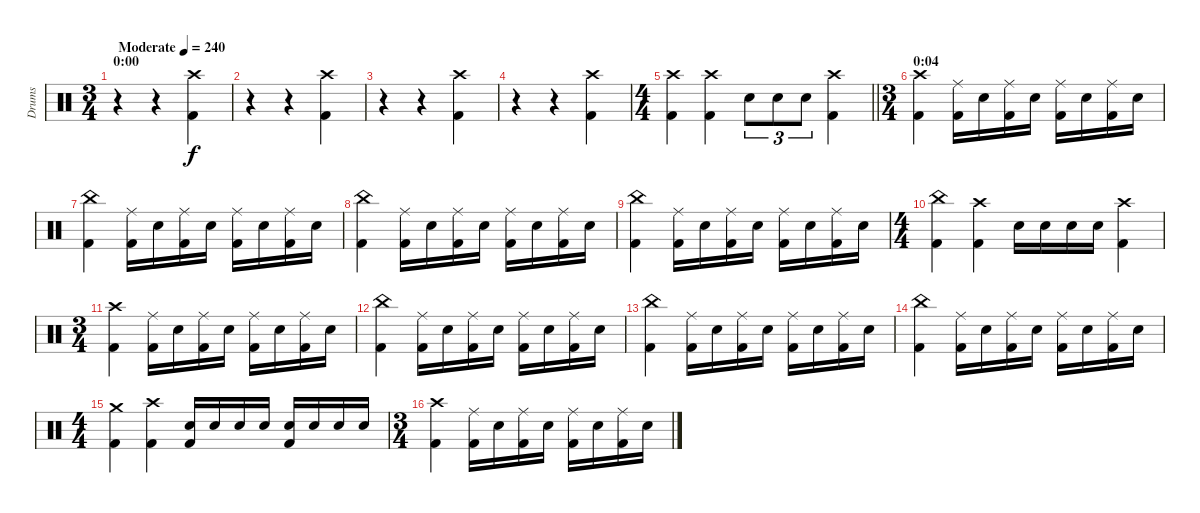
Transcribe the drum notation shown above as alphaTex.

\track ("Drums" "Drums") {instrument percussion}
\staff {score}
\articulation defaults
\ts (3 4)
\section ("" "0:00")
\tempo (240 "Moderate")
\clef neutral
\ks c
r.4{dy f} r.4 ("Crash high (hit)" "Kick (hit) 2").4 |
r.4{volume 0} r.4 ("Crash high (hit)" "Kick (hit) 2").4{volume 13} |
r.4{volume 0} r.4 ("Crash high (hit)" "Kick (hit) 2").4{volume 13} |
r.4{volume 0} r.4 ("Crash high (hit)" "Kick (hit) 2").4{volume 13} |
\ts (4 4)
\barLineRight lightlight
("Crash high (hit)" "Kick (hit) 2").4 ("Crash high (hit)" "Kick (hit) 2").4 "Electric Snare (hit)".8{tu (3 2)} "Electric Snare (hit)".8{tu (3 2)} "Electric Snare (hit)".8{tu (3 2)} ("Crash high (hit)" "Kick (hit) 2").4 |
\ts (3 4)
\section ("" "0:04")
("Crash high (hit)" "Kick (hit) 2").4 ("Ride (middle)" "Kick (hit) 2").16 "Electric Snare (hit)".16 ("Ride (middle)" "Kick (hit) 2").16 "Electric Snare (hit)".16 ("Ride (middle)" "Kick (hit) 2").16 "Electric Snare (hit)".16 ("Ride (middle)" "Kick (hit) 2").16 "Electric Snare (hit)".16 |
("China (hit)" "Kick (hit) 2").4 ("Ride (middle)" "Kick (hit) 2").16 "Electric Snare (hit)".16 ("Ride (middle)" "Kick (hit) 2").16 "Electric Snare (hit)".16 ("Ride (middle)" "Kick (hit) 2").16 "Electric Snare (hit)".16 ("Ride (middle)" "Kick (hit) 2").16 "Electric Snare (hit)".16 |
("China (hit)" "Kick (hit) 2").4 ("Ride (middle)" "Kick (hit) 2").16 "Electric Snare (hit)".16 ("Ride (middle)" "Kick (hit) 2").16 "Electric Snare (hit)".16 ("Ride (middle)" "Kick (hit) 2").16 "Electric Snare (hit)".16 ("Ride (middle)" "Kick (hit) 2").16 "Electric Snare (hit)".16 |
("China (hit)" "Kick (hit) 2").4 ("Ride (middle)" "Kick (hit) 2").16 "Electric Snare (hit)".16 ("Ride (middle)" "Kick (hit) 2").16 "Electric Snare (hit)".16 ("Ride (middle)" "Kick (hit) 2").16 "Electric Snare (hit)".16 ("Ride (middle)" "Kick (hit) 2").16 "Electric Snare (hit)".16 |
\ts (4 4)
("China (hit)" "Kick (hit) 2").4 ("Crash high (hit)" "Kick (hit) 2").4 "Electric Snare (hit)".16 "Electric Snare (hit)".16 "Electric Snare (hit)".16 "Electric Snare (hit)".16 ("Crash high (hit)" "Kick (hit) 2").4 |
\ts (3 4)
("Crash high (hit)" "Kick (hit) 2").4 ("Ride (middle)" "Kick (hit) 2").16 "Electric Snare (hit)".16 ("Ride (middle)" "Kick (hit) 2").16 "Electric Snare (hit)".16 ("Ride (middle)" "Kick (hit) 2").16 "Electric Snare (hit)".16 ("Ride (middle)" "Kick (hit) 2").16 "Electric Snare (hit)".16 |
("China (hit)" "Kick (hit) 2").4 ("Ride (middle)" "Kick (hit) 2").16 "Electric Snare (hit)".16 ("Ride (middle)" "Kick (hit) 2").16 "Electric Snare (hit)".16 ("Ride (middle)" "Kick (hit) 2").16 "Electric Snare (hit)".16 ("Ride (middle)" "Kick (hit) 2").16 "Electric Snare (hit)".16 |
("China (hit)" "Kick (hit) 2").4 ("Ride (middle)" "Kick (hit) 2").16 "Electric Snare (hit)".16 ("Ride (middle)" "Kick (hit) 2").16 "Electric Snare (hit)".16 ("Ride (middle)" "Kick (hit) 2").16 "Electric Snare (hit)".16 ("Ride (middle)" "Kick (hit) 2").16 "Electric Snare (hit)".16 |
("China (hit)" "Kick (hit) 2").4 ("Ride (middle)" "Kick (hit) 2").16 "Electric Snare (hit)".16 ("Ride (middle)" "Kick (hit) 2").16 "Electric Snare (hit)".16 ("Ride (middle)" "Kick (hit) 2").16 "Electric Snare (hit)".16 ("Ride (middle)" "Kick (hit) 2").16 "Electric Snare (hit)".16 |
\ts (4 4)
("Crash medium (hit)" "Kick (hit) 2").4 ("Crash high (hit)" "Kick (hit) 2").4 ("Kick (hit) 2" "Electric Snare (hit)").16 "Electric Snare (hit)".16 "Electric Snare (hit)".16 "Electric Snare (hit)".16 ("Kick (hit) 2" "Electric Snare (hit)").16 "Electric Snare (hit)".16 "Electric Snare (hit)".16 "Electric Snare (hit)".16 |
\ts (3 4)
("Crash high (hit)" "Kick (hit) 2").4 ("Ride (middle)" "Kick (hit) 2").16 "Electric Snare (hit)".16 ("Ride (middle)" "Kick (hit) 2").16 "Electric Snare (hit)".16 ("Ride (middle)" "Kick (hit) 2").16 "Electric Snare (hit)".16 ("Ride (middle)" "Kick (hit) 2").16 "Electric Snare (hit)".16
